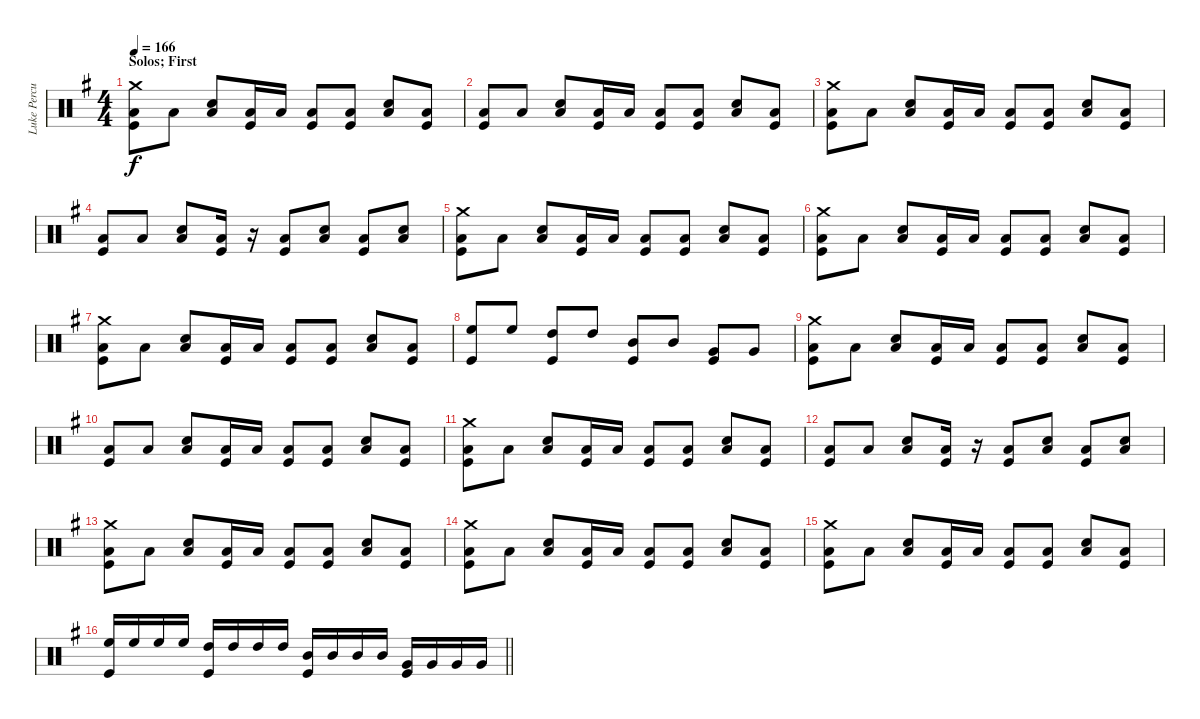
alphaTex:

\track ("Luke Percussion" "Luke Percu") {instrument percussion}
\staff {score}
\articulation defaults
\ts (4 4)
\section ("" "Solos; First")
\tempo 166
\clef neutral
\ks eminor
("Crash medium (hit)" "Low Floor Tom (hit)" "Kick (hit)").8{dy f} "Low Floor Tom (hit)".8 ("Snare (hit) 2" "Low Floor Tom (hit)").8 ("Low Floor Tom (hit)" "Kick (hit)").16 "Low Floor Tom (hit)".16 ("Low Floor Tom (hit)" "Kick (hit)").8 ("Low Floor Tom (hit)" "Kick (hit)").8 ("Snare (hit) 2" "Low Floor Tom (hit)").8 ("Low Floor Tom (hit)" "Kick (hit)").8 |
("Low Floor Tom (hit)" "Kick (hit)").8 "Low Floor Tom (hit)".8 ("Snare (hit) 2" "Low Floor Tom (hit)").8 ("Low Floor Tom (hit)" "Kick (hit)").16 "Low Floor Tom (hit)".16 ("Low Floor Tom (hit)" "Kick (hit)").8 ("Low Floor Tom (hit)" "Kick (hit)").8 ("Snare (hit) 2" "Low Floor Tom (hit)").8 ("Low Floor Tom (hit)" "Kick (hit)").8 |
("Crash medium (hit)" "Low Floor Tom (hit)" "Kick (hit)").8 "Low Floor Tom (hit)".8 ("Snare (hit) 2" "Low Floor Tom (hit)").8 ("Low Floor Tom (hit)" "Kick (hit)").16 "Low Floor Tom (hit)".16 ("Low Floor Tom (hit)" "Kick (hit)").8 ("Low Floor Tom (hit)" "Kick (hit)").8 ("Snare (hit) 2" "Low Floor Tom (hit)").8 ("Low Floor Tom (hit)" "Kick (hit)").8 |
("Low Floor Tom (hit)" "Kick (hit)").8 "Low Floor Tom (hit)".8 ("Snare (hit) 2" "Low Floor Tom (hit)").8 ("Low Floor Tom (hit)" "Kick (hit)").16 r.16 ("Low Floor Tom (hit)" "Kick (hit)").8 ("Snare (hit) 2" "Low Floor Tom (hit)").8 ("Low Floor Tom (hit)" "Kick (hit)").8 ("Snare (hit) 2" "Low Floor Tom (hit)").8 |
("Crash medium (hit)" "Low Floor Tom (hit)" "Kick (hit)").8 "Low Floor Tom (hit)".8 ("Snare (hit) 2" "Low Floor Tom (hit)").8 ("Low Floor Tom (hit)" "Kick (hit)").16 "Low Floor Tom (hit)".16 ("Low Floor Tom (hit)" "Kick (hit)").8 ("Low Floor Tom (hit)" "Kick (hit)").8 ("Snare (hit) 2" "Low Floor Tom (hit)").8 ("Low Floor Tom (hit)" "Kick (hit)").8 |
("Crash medium (hit)" "Low Floor Tom (hit)" "Kick (hit)").8 "Low Floor Tom (hit)".8 ("Snare (hit) 2" "Low Floor Tom (hit)").8 ("Low Floor Tom (hit)" "Kick (hit)").16 "Low Floor Tom (hit)".16 ("Low Floor Tom (hit)" "Kick (hit)").8 ("Low Floor Tom (hit)" "Kick (hit)").8 ("Snare (hit) 2" "Low Floor Tom (hit)").8 ("Low Floor Tom (hit)" "Kick (hit)").8 |
("Crash medium (hit)" "Low Floor Tom (hit)" "Kick (hit)").8 "Low Floor Tom (hit)".8 ("Snare (hit) 2" "Low Floor Tom (hit)").8 ("Low Floor Tom (hit)" "Kick (hit)").16 "Low Floor Tom (hit)".16 ("Low Floor Tom (hit)" "Kick (hit)").8 ("Low Floor Tom (hit)" "Kick (hit)").8 ("Snare (hit) 2" "Low Floor Tom (hit)").8 ("Low Floor Tom (hit)" "Kick (hit)").8 |
("High Floor Tom (hit)" "Kick (hit)").8 "High Floor Tom (hit)".8 ("High Tom (hit)" "Kick (hit)").8 "High Tom (hit)".8 ("Mid Tom (hit)" "Kick (hit)").8 "Mid Tom (hit)".8 ("Very Low Tom (hit)" "Kick (hit)").8 "Very Low Tom (hit)".8 |
("Crash medium (hit)" "Low Floor Tom (hit)" "Kick (hit)").8 "Low Floor Tom (hit)".8 ("Snare (hit) 2" "Low Floor Tom (hit)").8 ("Low Floor Tom (hit)" "Kick (hit)").16 "Low Floor Tom (hit)".16 ("Low Floor Tom (hit)" "Kick (hit)").8 ("Low Floor Tom (hit)" "Kick (hit)").8 ("Snare (hit) 2" "Low Floor Tom (hit)").8 ("Low Floor Tom (hit)" "Kick (hit)").8 |
("Low Floor Tom (hit)" "Kick (hit)").8 "Low Floor Tom (hit)".8 ("Snare (hit) 2" "Low Floor Tom (hit)").8 ("Low Floor Tom (hit)" "Kick (hit)").16 "Low Floor Tom (hit)".16 ("Low Floor Tom (hit)" "Kick (hit)").8 ("Low Floor Tom (hit)" "Kick (hit)").8 ("Snare (hit) 2" "Low Floor Tom (hit)").8 ("Low Floor Tom (hit)" "Kick (hit)").8 |
("Crash medium (hit)" "Low Floor Tom (hit)" "Kick (hit)").8 "Low Floor Tom (hit)".8 ("Snare (hit) 2" "Low Floor Tom (hit)").8 ("Low Floor Tom (hit)" "Kick (hit)").16 "Low Floor Tom (hit)".16 ("Low Floor Tom (hit)" "Kick (hit)").8 ("Low Floor Tom (hit)" "Kick (hit)").8 ("Snare (hit) 2" "Low Floor Tom (hit)").8 ("Low Floor Tom (hit)" "Kick (hit)").8 |
("Low Floor Tom (hit)" "Kick (hit)").8 "Low Floor Tom (hit)".8 ("Snare (hit) 2" "Low Floor Tom (hit)").8 ("Low Floor Tom (hit)" "Kick (hit)").16 r.16 ("Low Floor Tom (hit)" "Kick (hit)").8 ("Snare (hit) 2" "Low Floor Tom (hit)").8 ("Low Floor Tom (hit)" "Kick (hit)").8 ("Snare (hit) 2" "Low Floor Tom (hit)").8 |
("Crash medium (hit)" "Low Floor Tom (hit)" "Kick (hit)").8 "Low Floor Tom (hit)".8 ("Snare (hit) 2" "Low Floor Tom (hit)").8 ("Low Floor Tom (hit)" "Kick (hit)").16 "Low Floor Tom (hit)".16 ("Low Floor Tom (hit)" "Kick (hit)").8 ("Low Floor Tom (hit)" "Kick (hit)").8 ("Snare (hit) 2" "Low Floor Tom (hit)").8 ("Low Floor Tom (hit)" "Kick (hit)").8 |
("Crash medium (hit)" "Low Floor Tom (hit)" "Kick (hit)").8 "Low Floor Tom (hit)".8 ("Snare (hit) 2" "Low Floor Tom (hit)").8 ("Low Floor Tom (hit)" "Kick (hit)").16 "Low Floor Tom (hit)".16 ("Low Floor Tom (hit)" "Kick (hit)").8 ("Low Floor Tom (hit)" "Kick (hit)").8 ("Snare (hit) 2" "Low Floor Tom (hit)").8 ("Low Floor Tom (hit)" "Kick (hit)").8 |
("Crash medium (hit)" "Low Floor Tom (hit)" "Kick (hit)").8 "Low Floor Tom (hit)".8 ("Snare (hit) 2" "Low Floor Tom (hit)").8 ("Low Floor Tom (hit)" "Kick (hit)").16 "Low Floor Tom (hit)".16 ("Low Floor Tom (hit)" "Kick (hit)").8 ("Low Floor Tom (hit)" "Kick (hit)").8 ("Snare (hit) 2" "Low Floor Tom (hit)").8 ("Low Floor Tom (hit)" "Kick (hit)").8 |
\barLineRight lightlight
("High Floor Tom (hit)" "Kick (hit)").16 "High Floor Tom (hit)".16 "High Floor Tom (hit)".16 "High Floor Tom (hit)".16 ("High Tom (hit)" "Kick (hit)").16 "High Tom (hit)".16 "High Tom (hit)".16 "High Tom (hit)".16 ("Mid Tom (hit)" "Kick (hit)").16 "Mid Tom (hit)".16 "Mid Tom (hit)".16 "Mid Tom (hit)".16 ("Very Low Tom (hit)" "Kick (hit)").16 "Very Low Tom (hit)".16 "Very Low Tom (hit)".16 "Very Low Tom (hit)".16
